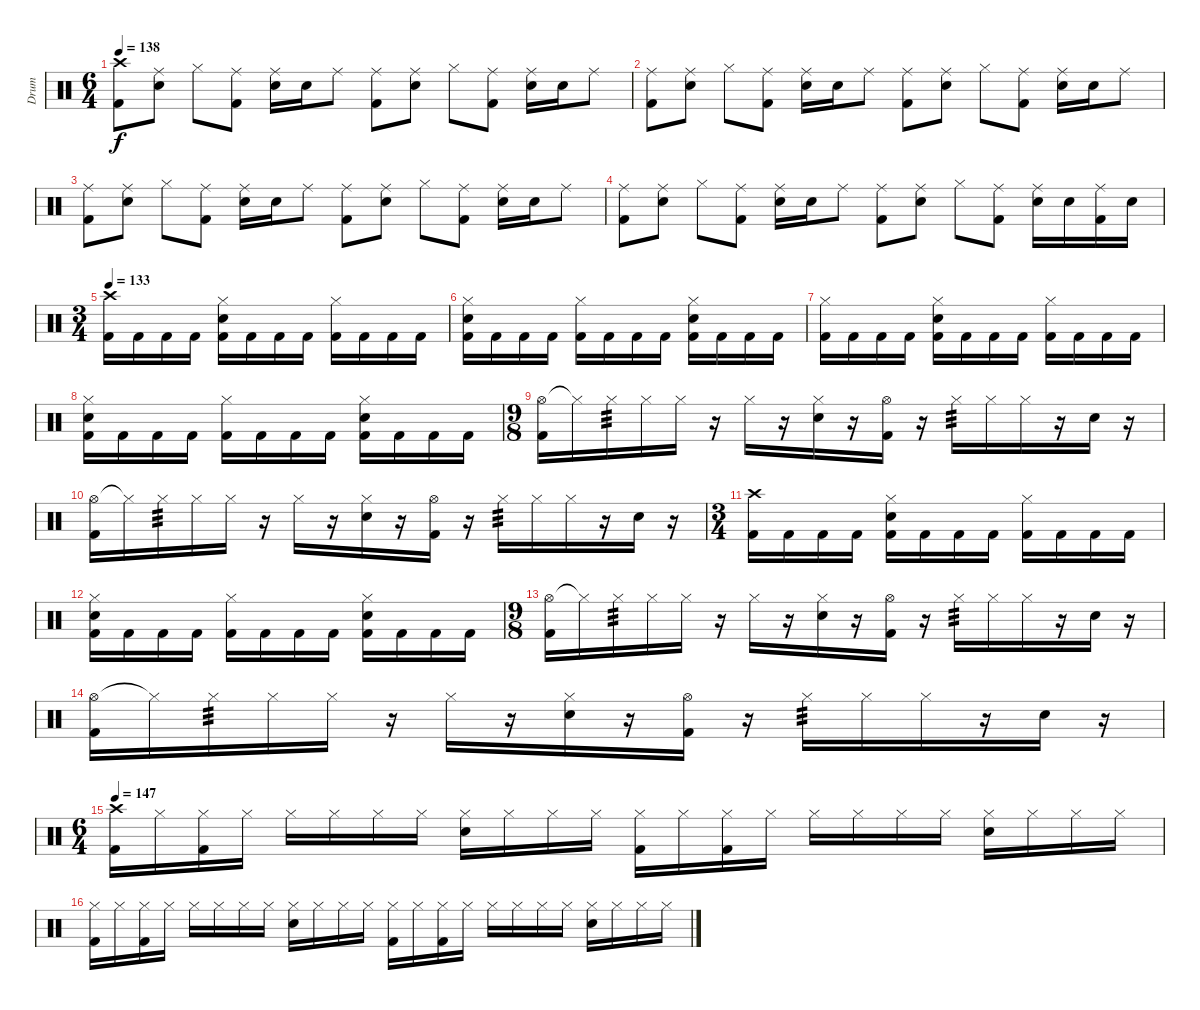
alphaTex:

\track ("Drum" "Drum") {instrument percussion}
\staff {score}
\articulation defaults
\ts (6 4)
\tempo 138
\clef neutral
\ks c
("Crash high (hit)" "Kick (hit) 2").8{dy f} ("Ride (middle)" "Snare (hit) 2").8 "Hi-Hat (closed)".8 ("Ride (middle)" "Kick (hit) 2").8 ("Ride (middle)" "Snare (hit) 2").16 "Snare (hit) 2".16 "Ride (middle)".8 ("Ride (middle)" "Kick (hit) 2").8 ("Ride (middle)" "Snare (hit) 2").8 "Hi-Hat (closed)".8 ("Ride (middle)" "Kick (hit) 2").8 ("Ride (middle)" "Snare (hit) 2").16 "Snare (hit) 2".16 "Ride (middle)".8 |
("Ride (middle)" "Kick (hit) 2").8 ("Ride (middle)" "Snare (hit) 2").8 "Hi-Hat (closed)".8 ("Ride (middle)" "Kick (hit) 2").8 ("Ride (middle)" "Snare (hit) 2").16 "Snare (hit) 2".16 "Ride (middle)".8 ("Ride (middle)" "Kick (hit) 2").8 ("Ride (middle)" "Snare (hit) 2").8 "Hi-Hat (closed)".8 ("Ride (middle)" "Kick (hit) 2").8 ("Ride (middle)" "Snare (hit) 2").16 "Snare (hit) 2".16 "Ride (middle)".8 |
("Ride (middle)" "Kick (hit) 2").8 ("Ride (middle)" "Snare (hit) 2").8 "Hi-Hat (closed)".8 ("Ride (middle)" "Kick (hit) 2").8 ("Ride (middle)" "Snare (hit) 2").16 "Snare (hit) 2".16 "Ride (middle)".8 ("Ride (middle)" "Kick (hit) 2").8 ("Ride (middle)" "Snare (hit) 2").8 "Hi-Hat (closed)".8 ("Ride (middle)" "Kick (hit) 2").8 ("Ride (middle)" "Snare (hit) 2").16 "Snare (hit) 2".16 "Ride (middle)".8 |
("Ride (middle)" "Kick (hit) 2").8 ("Ride (middle)" "Snare (hit) 2").8 "Hi-Hat (closed)".8 ("Ride (middle)" "Kick (hit) 2").8 ("Ride (middle)" "Snare (hit) 2").16 "Snare (hit) 2".16 "Ride (middle)".8 ("Ride (middle)" "Kick (hit) 2").8 ("Ride (middle)" "Snare (hit) 2").8 "Hi-Hat (closed)".8 ("Ride (middle)" "Kick (hit) 2").8 ("Ride (middle)" "Snare (hit) 2").16 "Snare (hit) 2".16 ("Ride (middle)" "Kick (hit) 2").16 "Snare (hit) 2".16 |
\ts (3 4)
\tempo 133
("Crash high (hit)" "Kick (hit) 2").16 "Kick (hit) 2".16 "Kick (hit) 2".16 "Kick (hit) 2".16 ("Hi-Hat (closed)" "Snare (hit) 2" "Kick (hit) 2").16 "Kick (hit) 2".16 "Kick (hit) 2".16 "Kick (hit) 2".16 ("Hi-Hat (closed)" "Kick (hit) 2").16 "Kick (hit) 2".16 "Kick (hit) 2".16 "Kick (hit) 2".16 |
("Hi-Hat (closed)" "Snare (hit) 2" "Kick (hit) 2").16 "Kick (hit) 2".16 "Kick (hit) 2".16 "Kick (hit) 2".16 ("Hi-Hat (closed)" "Kick (hit) 2").16 "Kick (hit) 2".16 "Kick (hit) 2".16 "Kick (hit) 2".16 ("Hi-Hat (closed)" "Snare (hit) 2" "Kick (hit) 2").16 "Kick (hit) 2".16 "Kick (hit) 2".16 "Kick (hit) 2".16 |
("Hi-Hat (closed)" "Kick (hit) 2").16 "Kick (hit) 2".16 "Kick (hit) 2".16 "Kick (hit) 2".16 ("Hi-Hat (closed)" "Snare (hit) 2" "Kick (hit) 2").16 "Kick (hit) 2".16 "Kick (hit) 2".16 "Kick (hit) 2".16 ("Hi-Hat (closed)" "Kick (hit) 2").16 "Kick (hit) 2".16 "Kick (hit) 2".16 "Kick (hit) 2".16 |
("Hi-Hat (closed)" "Snare (hit) 2" "Kick (hit) 2").16 "Kick (hit) 2".16 "Kick (hit) 2".16 "Kick (hit) 2".16 ("Hi-Hat (closed)" "Kick (hit) 2").16 "Kick (hit) 2".16 "Kick (hit) 2".16 "Kick (hit) 2".16 ("Hi-Hat (closed)" "Snare (hit) 2" "Kick (hit) 2").16 "Kick (hit) 2".16 "Kick (hit) 2".16 "Kick (hit) 2".16 |
\ts (9 8)
("Hi-Hat (open)" "Kick (hit) 2").16 "Hi-Hat (closed)"{t}.16 "Hi-Hat (closed)".16{tp 3} "Hi-Hat (closed)".16 "Hi-Hat (closed)".16 r.16 "Hi-Hat (closed)".16 r.16 ("Hi-Hat (closed)" "Snare (hit) 2").16 r.16 ("Hi-Hat (open)" "Kick (hit) 2").16 r.16 "Hi-Hat (closed)".16{tp 3} "Hi-Hat (closed)".16 "Hi-Hat (closed)".16 r.16 "Snare (hit) 2".16 r.16 |
("Hi-Hat (open)" "Kick (hit) 2").16 "Hi-Hat (closed)"{t}.16 "Hi-Hat (closed)".16{tp 3} "Hi-Hat (closed)".16 "Hi-Hat (closed)".16 r.16 "Hi-Hat (closed)".16 r.16 ("Hi-Hat (closed)" "Snare (hit) 2").16 r.16 ("Hi-Hat (open)" "Kick (hit) 2").16 r.16 "Hi-Hat (closed)".16{tp 3} "Hi-Hat (closed)".16 "Hi-Hat (closed)".16 r.16 "Snare (hit) 2".16 r.16 |
\ts (3 4)
("Crash high (hit)" "Kick (hit) 2").16 "Kick (hit) 2".16 "Kick (hit) 2".16 "Kick (hit) 2".16 ("Hi-Hat (closed)" "Snare (hit) 2" "Kick (hit) 2").16 "Kick (hit) 2".16 "Kick (hit) 2".16 "Kick (hit) 2".16 ("Hi-Hat (closed)" "Kick (hit) 2").16 "Kick (hit) 2".16 "Kick (hit) 2".16 "Kick (hit) 2".16 |
("Hi-Hat (closed)" "Snare (hit) 2" "Kick (hit) 2").16 "Kick (hit) 2".16 "Kick (hit) 2".16 "Kick (hit) 2".16 ("Hi-Hat (closed)" "Kick (hit) 2").16 "Kick (hit) 2".16 "Kick (hit) 2".16 "Kick (hit) 2".16 ("Hi-Hat (closed)" "Snare (hit) 2" "Kick (hit) 2").16 "Kick (hit) 2".16 "Kick (hit) 2".16 "Kick (hit) 2".16 |
\ts (9 8)
("Hi-Hat (open)" "Kick (hit) 2").16 "Hi-Hat (closed)"{t}.16 "Hi-Hat (closed)".16{tp 3} "Hi-Hat (closed)".16 "Hi-Hat (closed)".16 r.16 "Hi-Hat (closed)".16 r.16 ("Hi-Hat (closed)" "Snare (hit) 2").16 r.16 ("Hi-Hat (open)" "Kick (hit) 2").16 r.16 "Hi-Hat (closed)".16{tp 3} "Hi-Hat (closed)".16 "Hi-Hat (closed)".16 r.16 "Snare (hit) 2".16 r.16 |
("Hi-Hat (open)" "Kick (hit) 2").16 "Hi-Hat (closed)"{t}.16 "Hi-Hat (closed)".16{tp 3} "Hi-Hat (closed)".16 "Hi-Hat (closed)".16 r.16 "Hi-Hat (closed)".16 r.16 ("Hi-Hat (closed)" "Snare (hit) 2").16 r.16 ("Hi-Hat (open)" "Kick (hit) 2").16 r.16 "Hi-Hat (closed)".16{tp 3} "Hi-Hat (closed)".16 "Hi-Hat (closed)".16 r.16 "Snare (hit) 2".16 r.16 |
\ts (6 4)
\tempo 147
("Crash high (hit)" "Kick (hit) 2").16 "Hi-Hat (closed)".16 ("Hi-Hat (closed)" "Kick (hit) 2").16 "Hi-Hat (closed)".16 "Hi-Hat (closed)".16 "Hi-Hat (closed)".16 "Hi-Hat (closed)".16 "Hi-Hat (closed)".16 ("Hi-Hat (closed)" "Snare (hit) 2").16 "Hi-Hat (closed)".16 "Hi-Hat (closed)".16 "Hi-Hat (closed)".16 ("Hi-Hat (closed)" "Kick (hit) 2").16 "Hi-Hat (closed)".16 ("Hi-Hat (closed)" "Kick (hit) 2").16 "Hi-Hat (closed)".16 "Hi-Hat (closed)".16 "Hi-Hat (closed)".16 "Hi-Hat (closed)".16 "Hi-Hat (closed)".16 ("Hi-Hat (closed)" "Snare (hit) 2").16 "Hi-Hat (closed)".16 "Hi-Hat (closed)".16 "Hi-Hat (closed)".16 |
("Hi-Hat (closed)" "Kick (hit) 2").16 "Hi-Hat (closed)".16 ("Hi-Hat (closed)" "Kick (hit) 2").16 "Hi-Hat (closed)".16 "Hi-Hat (closed)".16 "Hi-Hat (closed)".16 "Hi-Hat (closed)".16 "Hi-Hat (closed)".16 ("Hi-Hat (closed)" "Snare (hit) 2").16 "Hi-Hat (closed)".16 "Hi-Hat (closed)".16 "Hi-Hat (closed)".16 ("Hi-Hat (closed)" "Kick (hit) 2").16 "Hi-Hat (closed)".16 ("Hi-Hat (closed)" "Kick (hit) 2").16 "Hi-Hat (closed)".16 "Hi-Hat (closed)".16 "Hi-Hat (closed)".16 "Hi-Hat (closed)".16 "Hi-Hat (closed)".16 ("Hi-Hat (closed)" "Snare (hit) 2").16 "Hi-Hat (closed)".16 "Hi-Hat (closed)".16 "Hi-Hat (closed)".16
